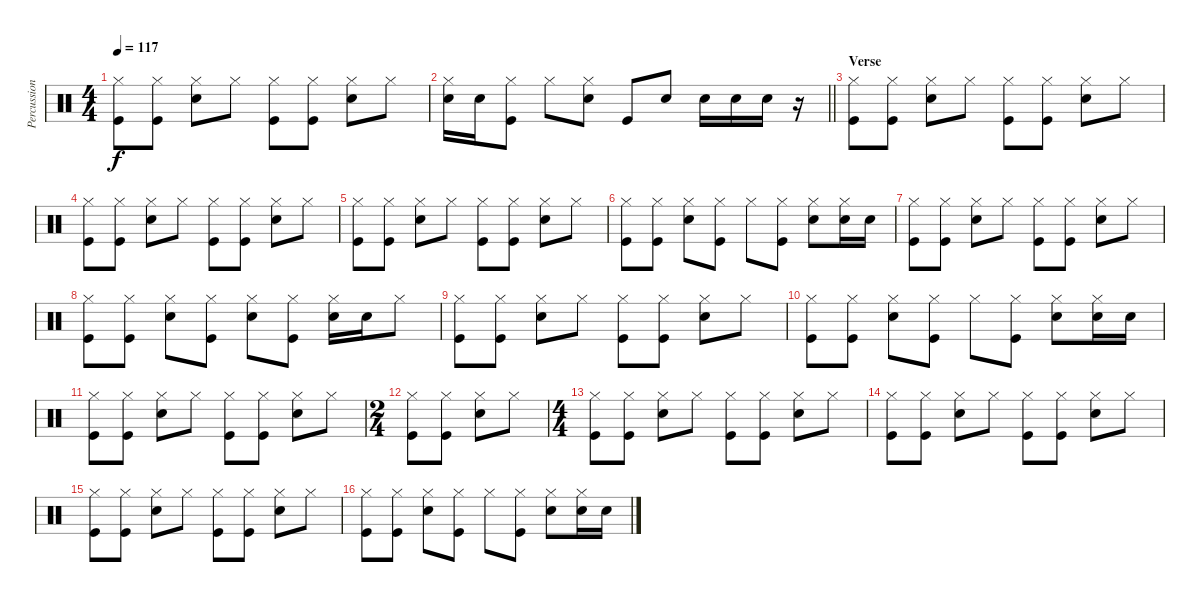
\track ("Percussion" "Percussion") {instrument percussion}
\staff
\articulation defaults
\ts (4 4)
\tempo 117
\clef neutral
\ks c
("Hi-Hat (closed)" "Kick (hit)").8{dy f} ("Hi-Hat (closed)" "Kick (hit)").8 ("Hi-Hat (closed)" "Snare (hit) 2").8 "Hi-Hat (closed)".8 ("Hi-Hat (closed)" "Kick (hit)").8 ("Hi-Hat (closed)" "Kick (hit)").8 ("Hi-Hat (closed)" "Snare (hit) 2").8 "Hi-Hat (closed)".8 |
\barLineRight lightlight
("Hi-Hat (closed)" "Snare (hit) 2").16 "Snare (hit) 2".16 ("Hi-Hat (closed)" "Kick (hit)").8 "Hi-Hat (closed)".8 ("Hi-Hat (closed)" "Snare (hit) 2").8 "Kick (hit)".8 "Snare (hit) 2".8 "Snare (hit) 2".16 "Snare (hit) 2".16 "Snare (hit) 2".16 r.16 |
\section ("" "Verse")
("Hi-Hat (closed)" "Kick (hit)").8 ("Hi-Hat (closed)" "Kick (hit)").8 ("Hi-Hat (closed)" "Snare (hit) 2").8 "Hi-Hat (closed)".8 ("Hi-Hat (closed)" "Kick (hit)").8 ("Hi-Hat (closed)" "Kick (hit)").8 ("Hi-Hat (closed)" "Snare (hit) 2").8 "Hi-Hat (closed)".8 |
("Hi-Hat (closed)" "Kick (hit)").8 ("Hi-Hat (closed)" "Kick (hit)").8 ("Hi-Hat (closed)" "Snare (hit) 2").8 "Hi-Hat (closed)".8 ("Hi-Hat (closed)" "Kick (hit)").8 ("Hi-Hat (closed)" "Kick (hit)").8 ("Hi-Hat (closed)" "Snare (hit) 2").8 "Hi-Hat (closed)".8 |
("Hi-Hat (closed)" "Kick (hit)").8 ("Hi-Hat (closed)" "Kick (hit)").8 ("Hi-Hat (closed)" "Snare (hit) 2").8 "Hi-Hat (closed)".8 ("Hi-Hat (closed)" "Kick (hit)").8 ("Hi-Hat (closed)" "Kick (hit)").8 ("Hi-Hat (closed)" "Snare (hit) 2").8 "Hi-Hat (closed)".8 |
("Hi-Hat (closed)" "Kick (hit)").8 ("Hi-Hat (closed)" "Kick (hit)").8 ("Hi-Hat (closed)" "Snare (hit) 2").8 ("Hi-Hat (closed)" "Kick (hit)").8 "Hi-Hat (closed)".8 ("Hi-Hat (closed)" "Kick (hit)").8 ("Hi-Hat (closed)" "Snare (hit) 2").8 ("Hi-Hat (closed)" "Snare (hit) 2").16 "Snare (hit) 2".16 |
("Hi-Hat (closed)" "Kick (hit)").8 ("Hi-Hat (closed)" "Kick (hit)").8 ("Hi-Hat (closed)" "Snare (hit) 2").8 "Hi-Hat (closed)".8 ("Hi-Hat (closed)" "Kick (hit)").8 ("Hi-Hat (closed)" "Kick (hit)").8 ("Hi-Hat (closed)" "Snare (hit) 2").8 "Hi-Hat (closed)".8 |
("Hi-Hat (closed)" "Kick (hit)").8 ("Hi-Hat (closed)" "Kick (hit)").8 ("Hi-Hat (closed)" "Snare (hit) 2").8 ("Hi-Hat (closed)" "Kick (hit)").8 ("Hi-Hat (closed)" "Snare (hit) 2").8 ("Hi-Hat (closed)" "Kick (hit)").8 ("Hi-Hat (closed)" "Snare (hit) 2").16 "Snare (hit) 2".16 "Hi-Hat (closed)".8 |
("Hi-Hat (closed)" "Kick (hit)").8 ("Hi-Hat (closed)" "Kick (hit)").8 ("Hi-Hat (closed)" "Snare (hit) 2").8 "Hi-Hat (closed)".8 ("Hi-Hat (closed)" "Kick (hit)").8 ("Hi-Hat (closed)" "Kick (hit)").8 ("Hi-Hat (closed)" "Snare (hit) 2").8 "Hi-Hat (closed)".8 |
("Hi-Hat (closed)" "Kick (hit)").8 ("Hi-Hat (closed)" "Kick (hit)").8 ("Hi-Hat (closed)" "Snare (hit) 2").8 ("Hi-Hat (closed)" "Kick (hit)").8 "Hi-Hat (closed)".8 ("Hi-Hat (closed)" "Kick (hit)").8 ("Hi-Hat (closed)" "Snare (hit) 2").8 ("Hi-Hat (closed)" "Snare (hit) 2").16 "Snare (hit) 2".16 |
("Hi-Hat (closed)" "Kick (hit)").8 ("Hi-Hat (closed)" "Kick (hit)").8 ("Hi-Hat (closed)" "Snare (hit) 2").8 "Hi-Hat (closed)".8 ("Hi-Hat (closed)" "Kick (hit)").8 ("Hi-Hat (closed)" "Kick (hit)").8 ("Hi-Hat (closed)" "Snare (hit) 2").8 "Hi-Hat (closed)".8 |
\ts (2 4)
("Hi-Hat (closed)" "Kick (hit)").8 ("Hi-Hat (closed)" "Kick (hit)").8 ("Hi-Hat (closed)" "Snare (hit) 2").8 "Hi-Hat (closed)".8 |
\ts (4 4)
("Hi-Hat (closed)" "Kick (hit)").8 ("Hi-Hat (closed)" "Kick (hit)").8 ("Hi-Hat (closed)" "Snare (hit) 2").8 "Hi-Hat (closed)".8 ("Hi-Hat (closed)" "Kick (hit)").8 ("Hi-Hat (closed)" "Kick (hit)").8 ("Hi-Hat (closed)" "Snare (hit) 2").8 "Hi-Hat (closed)".8 |
("Hi-Hat (closed)" "Kick (hit)").8 ("Hi-Hat (closed)" "Kick (hit)").8 ("Hi-Hat (closed)" "Snare (hit) 2").8 "Hi-Hat (closed)".8 ("Hi-Hat (closed)" "Kick (hit)").8 ("Hi-Hat (closed)" "Kick (hit)").8 ("Hi-Hat (closed)" "Snare (hit) 2").8 "Hi-Hat (closed)".8 |
("Hi-Hat (closed)" "Kick (hit)").8 ("Hi-Hat (closed)" "Kick (hit)").8 ("Hi-Hat (closed)" "Snare (hit) 2").8 "Hi-Hat (closed)".8 ("Hi-Hat (closed)" "Kick (hit)").8 ("Hi-Hat (closed)" "Kick (hit)").8 ("Hi-Hat (closed)" "Snare (hit) 2").8 "Hi-Hat (closed)".8 |
("Hi-Hat (closed)" "Kick (hit)").8 ("Hi-Hat (closed)" "Kick (hit)").8 ("Hi-Hat (closed)" "Snare (hit) 2").8 ("Hi-Hat (closed)" "Kick (hit)").8 "Hi-Hat (closed)".8 ("Hi-Hat (closed)" "Kick (hit)").8 ("Hi-Hat (closed)" "Snare (hit) 2").8 ("Hi-Hat (closed)" "Snare (hit) 2").16 "Snare (hit) 2".16
